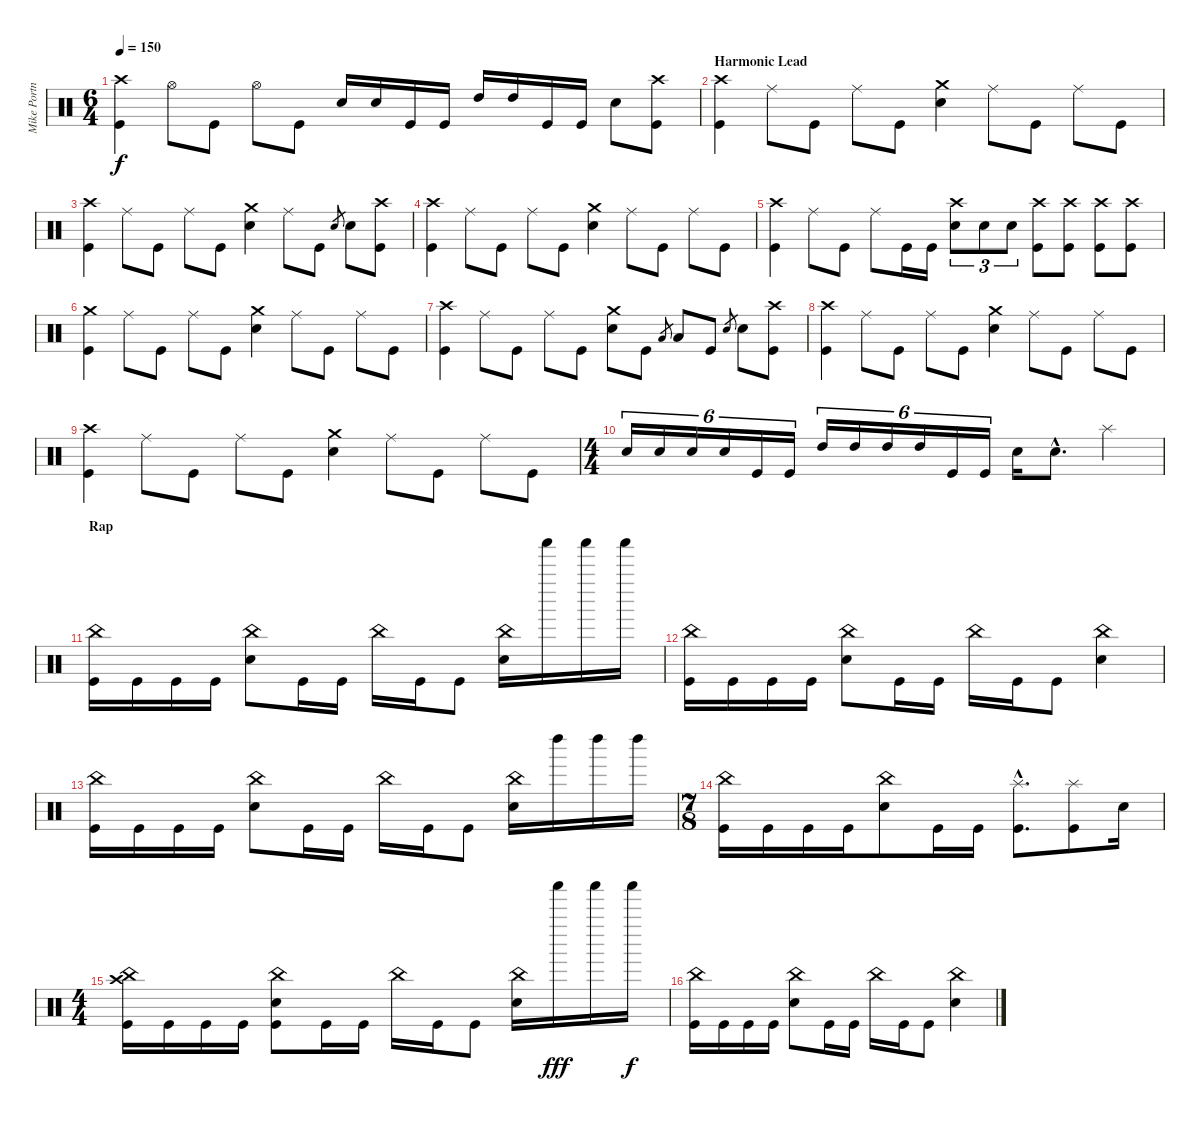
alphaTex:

\track ("Mike Portnoy" "Mike Portn") {instrument percussion}
\staff {score}
\articulation defaults
\ts (6 4)
\tempo 150
\clef neutral
\ks c
("Crash high (hit)" "Kick (hit)").4{dy f} "Hi-Hat (open)".8 "Kick (hit)".8 "Hi-Hat (open)".8 "Kick (hit)".8 "Electric Snare (hit)".16 "Electric Snare (hit)".16 "Kick (hit)".16 "Kick (hit)".16 "High Tom (hit)".16 "High Tom (hit)".16 "Kick (hit)".16 "Kick (hit)".16 "Electric Snare (hit)".8 ("Crash high (hit)" "Kick (hit)").8 |
\section ("" "Harmonic Lead")
("Crash high (hit)" "Kick (hit)").4 "Ride (middle)".8 "Kick (hit)".8 "Ride (middle)".8 "Kick (hit)".8 ("Crash medium (hit)" "Electric Snare (hit)").4 "Ride (middle)".8 "Kick (hit)".8 "Ride (middle)".8 "Kick (hit)".8 |
("Crash high (hit)" "Kick (hit)").4 "Ride (middle)".8 "Kick (hit)".8 "Ride (middle)".8 "Kick (hit)".8 ("Crash medium (hit)" "Electric Snare (hit)").4 "Ride (middle)".8 "Kick (hit)".8 "Electric Snare (hit)".8{gr} "Electric Snare (hit)".8 ("Crash high (hit)" "Kick (hit)").8 |
("Crash high (hit)" "Kick (hit)").4 "Ride (middle)".8 "Kick (hit)".8 "Ride (middle)".8 "Kick (hit)".8 ("Crash medium (hit)" "Electric Snare (hit)").4 "Ride (middle)".8 "Kick (hit)".8 "Ride (middle)".8 "Kick (hit)".8 |
("Crash high (hit)" "Kick (hit)").4 "Ride (middle)".8 "Kick (hit)".8 "Ride (middle)".8 "Kick (hit)".16 "Kick (hit)".16 ("Crash high (hit)" "Electric Snare (hit)").8{tu (3 2)} "Electric Snare (hit)".8{tu (3 2)} "Electric Snare (hit)".8{tu (3 2)} ("Crash high (hit)" "Kick (hit)").8 ("Crash high (hit)" "Kick (hit)").8 ("Crash high (hit)" "Kick (hit)").8 ("Crash high (hit)" "Kick (hit)").8 |
("Crash medium (hit)" "Kick (hit)").4 "Ride (middle)".8 "Kick (hit)".8 "Ride (middle)".8 "Kick (hit)".8 ("Crash medium (hit)" "Electric Snare (hit)").4 "Ride (middle)".8 "Kick (hit)".8 "Ride (middle)".8 "Kick (hit)".8 |
("Crash high (hit)" "Kick (hit)").4 "Ride (middle)".8 "Kick (hit)".8 "Ride (middle)".8 "Kick (hit)".8 ("Crash medium (hit)" "Electric Snare (hit)").8 "Kick (hit)".8 "Low Tom (hit)".8{gr} "Low Tom (hit)".8 "Kick (hit)".8 "Electric Snare (hit)".8{gr} "Electric Snare (hit)".8 ("Crash high (hit)" "Kick (hit)").8 |
("Crash high (hit)" "Kick (hit)").4 "Ride (middle)".8 "Kick (hit)".8 "Ride (middle)".8 "Kick (hit)".8 ("Crash medium (hit)" "Electric Snare (hit)").4 "Ride (middle)".8 "Kick (hit)".8 "Ride (middle)".8 "Kick (hit)".8 |
("Crash high (hit)" "Kick (hit)").4 "Ride (middle)".8 "Kick (hit)".8 "Ride (middle)".8 "Kick (hit)".8 ("Crash medium (hit)" "Electric Snare (hit)").4 "Ride (middle)".8 "Kick (hit)".8 "Ride (middle)".8 "Kick (hit)".8 |
\ts (4 4)
"Electric Snare (hit)".16{tu (6 4)} "Electric Snare (hit)".16{tu (6 4)} "Electric Snare (hit)".16{tu (6 4)} "Electric Snare (hit)".16{tu (6 4)} "Kick (hit)".16{tu (6 4)} "Kick (hit)".16{tu (6 4)} "High Tom (hit)".16{tu (6 4)} "High Tom (hit)".16{tu (6 4)} "High Tom (hit)".16{tu (6 4)} "High Tom (hit)".16{tu (6 4)} "Kick (hit)".16{tu (6 4)} "Kick (hit)".16{tu (6 4)} "Electric Snare (hit)".16 "Electric Snare (hit)"{hac}.8{d} "Splash (hit)".4 |
\section ("" "Rap")
("China (hit)" "Kick (hit)").16 "Kick (hit)".16 "Kick (hit)".16 "Kick (hit)".16 ("China (hit)" "Electric Snare (hit)").8 "Kick (hit)".16 "Kick (hit)".16 "China (hit)".16 "Kick (hit)".16 "Kick (hit)".8 ("China (hit)" "Electric Snare (hit)").16 "Shaker (hit)".16 "Shaker (hit)".16 "Shaker (hit)".16 |
("China (hit)" "Kick (hit)").16 "Kick (hit)".16 "Kick (hit)".16 "Kick (hit)".16 ("China (hit)" "Electric Snare (hit)").8 "Kick (hit)".16 "Kick (hit)".16 "China (hit)".16 "Kick (hit)".16 "Kick (hit)".8 ("China (hit)" "Electric Snare (hit)").4 |
("China (hit)" "Kick (hit)").16 "Kick (hit)".16 "Kick (hit)".16 "Kick (hit)".16 ("China (hit)" "Electric Snare (hit)").8 "Kick (hit)".16 "Kick (hit)".16 "China (hit)".16 "Kick (hit)".16 "Kick (hit)".8 ("China (hit)" "Electric Snare (hit)").16 "Left Maraca (hit)".16 "Left Maraca (hit)".16 "Left Maraca (hit)".16 |
\ts (7 8)
("China (hit)" "Kick (hit)").16 "Kick (hit)".16 "Kick (hit)".16 "Kick (hit)".16 ("China (hit)" "Electric Snare (hit)").8 "Kick (hit)".16 "Kick (hit)".16 ("Splash (hit)"{hac} "Kick (hit)"{hac}).8{d} ("Splash (hit)" "Kick (hit)").8 "Electric Snare (hit)".16 |
\ts (4 4)
("Crash high (hit)" "China (hit)" "Kick (hit)").16 "Kick (hit)".16 "Kick (hit)".16 "Kick (hit)".16 ("China (hit)" "Electric Snare (hit)" "Kick (hit)").8 "Kick (hit)".16 "Kick (hit)".16 "China (hit)".16 "Kick (hit)".16 "Kick (hit)".8 ("China (hit)" "Electric Snare (hit)").16 "Shaker (hit)".16{dy fff} "Shaker (hit)".16 "Shaker (hit)".16{dy f} |
("China (hit)" "Kick (hit)").16 "Kick (hit)".16 "Kick (hit)".16 "Kick (hit)".16 ("China (hit)" "Electric Snare (hit)").8 "Kick (hit)".16 "Kick (hit)".16 "China (hit)".16 "Kick (hit)".16 "Kick (hit)".8 ("China (hit)" "Electric Snare (hit)").4
